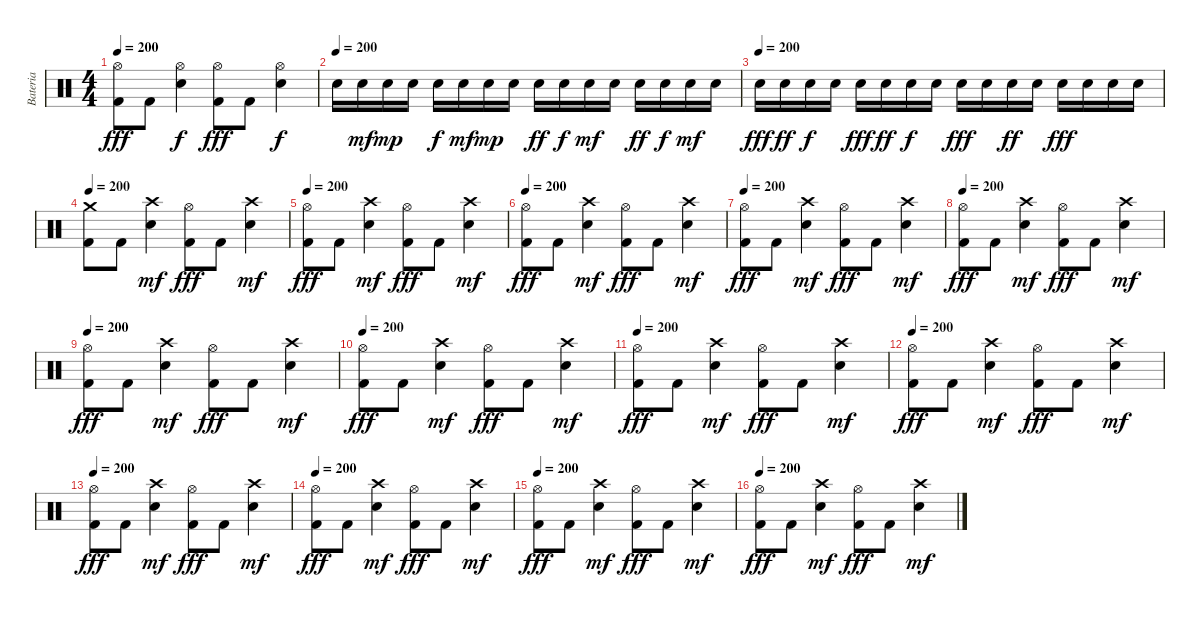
\track ("Bateria" "Bateria") {instrument percussion}
\staff {score}
\articulation defaults
\ts (4 4)
\tempo 200
\clef neutral
\ks c
("Hi-Hat (open)" "Kick (hit) 2").8{dy fff} "Kick (hit) 2".8 ("Hi-Hat (open)" "Electric Snare (hit)").4{dy f} ("Hi-Hat (open)" "Kick (hit) 2").8{dy fff} "Kick (hit) 2".8 ("Hi-Hat (open)" "Electric Snare (hit)").4{dy f} |
\tempo (200)
"Electric Snare (hit)".16 "Electric Snare (hit)".16{dy mf} "Electric Snare (hit)".16{dy mp} "Electric Snare (hit)".16 "Electric Snare (hit)".16{dy f} "Electric Snare (hit)".16{dy mf} "Electric Snare (hit)".16{dy mp} "Electric Snare (hit)".16 "Electric Snare (hit)".16{dy ff} "Electric Snare (hit)".16{dy f} "Electric Snare (hit)".16{dy mf} "Electric Snare (hit)".16 "Electric Snare (hit)".16{dy ff} "Electric Snare (hit)".16{dy f} "Electric Snare (hit)".16{dy mf} "Electric Snare (hit)".16 |
\tempo (200)
"Electric Snare (hit)".16{dy fff} "Electric Snare (hit)".16{dy ff} "Electric Snare (hit)".16{dy f} "Electric Snare (hit)".16 "Electric Snare (hit)".16{dy fff} "Electric Snare (hit)".16{dy ff} "Electric Snare (hit)".16{dy f} "Electric Snare (hit)".16 "Electric Snare (hit)".16{dy fff} "Electric Snare (hit)".16 "Electric Snare (hit)".16{dy ff} "Electric Snare (hit)".16 "Electric Snare (hit)".16{dy fff} "Electric Snare (hit)".16 "Electric Snare (hit)".16 "Electric Snare (hit)".16 |
\tempo 200
("Crash medium (hit)" "Kick (hit) 2").8 "Kick (hit) 2".8 ("Crash high (hit)" "Electric Snare (hit)").4{dy mf} ("Hi-Hat (open)" "Kick (hit) 2").8{dy fff} "Kick (hit) 2".8 ("Crash high (hit)" "Electric Snare (hit)").4{dy mf} |
\tempo 200
("Hi-Hat (open)" "Kick (hit) 2").8{dy fff} "Kick (hit) 2".8 ("Crash high (hit)" "Electric Snare (hit)").4{dy mf} ("Hi-Hat (open)" "Kick (hit) 2").8{dy fff} "Kick (hit) 2".8 ("Crash high (hit)" "Electric Snare (hit)").4{dy mf} |
\tempo 200
("Hi-Hat (open)" "Kick (hit) 2").8{dy fff} "Kick (hit) 2".8 ("Crash high (hit)" "Electric Snare (hit)").4{dy mf} ("Hi-Hat (open)" "Kick (hit) 2").8{dy fff} "Kick (hit) 2".8 ("Crash high (hit)" "Electric Snare (hit)").4{dy mf} |
\tempo 200
("Hi-Hat (open)" "Kick (hit) 2").8{dy fff} "Kick (hit) 2".8 ("Crash high (hit)" "Electric Snare (hit)").4{dy mf} ("Hi-Hat (open)" "Kick (hit) 2").8{dy fff} "Kick (hit) 2".8 ("Crash high (hit)" "Electric Snare (hit)").4{dy mf} |
\tempo 200
("Hi-Hat (open)" "Kick (hit) 2").8{dy fff} "Kick (hit) 2".8 ("Crash high (hit)" "Electric Snare (hit)").4{dy mf} ("Hi-Hat (open)" "Kick (hit) 2").8{dy fff} "Kick (hit) 2".8 ("Crash high (hit)" "Electric Snare (hit)").4{dy mf} |
\tempo 200
("Hi-Hat (open)" "Kick (hit) 2").8{dy fff} "Kick (hit) 2".8 ("Crash high (hit)" "Electric Snare (hit)").4{dy mf} ("Hi-Hat (open)" "Kick (hit) 2").8{dy fff} "Kick (hit) 2".8 ("Crash high (hit)" "Electric Snare (hit)").4{dy mf} |
\tempo 200
("Hi-Hat (open)" "Kick (hit) 2").8{dy fff} "Kick (hit) 2".8 ("Crash high (hit)" "Electric Snare (hit)").4{dy mf} ("Hi-Hat (open)" "Kick (hit) 2").8{dy fff} "Kick (hit) 2".8 ("Crash high (hit)" "Electric Snare (hit)").4{dy mf} |
\tempo 200
("Hi-Hat (open)" "Kick (hit) 2").8{dy fff} "Kick (hit) 2".8 ("Crash high (hit)" "Electric Snare (hit)").4{dy mf} ("Hi-Hat (open)" "Kick (hit) 2").8{dy fff} "Kick (hit) 2".8 ("Crash high (hit)" "Electric Snare (hit)").4{dy mf} |
\tempo 200
("Hi-Hat (open)" "Kick (hit) 2").8{dy fff} "Kick (hit) 2".8 ("Crash high (hit)" "Electric Snare (hit)").4{dy mf} ("Hi-Hat (open)" "Kick (hit) 2").8{dy fff} "Kick (hit) 2".8 ("Crash high (hit)" "Electric Snare (hit)").4{dy mf} |
\tempo 200
("Hi-Hat (open)" "Kick (hit) 2").8{dy fff} "Kick (hit) 2".8 ("Crash high (hit)" "Electric Snare (hit)").4{dy mf} ("Hi-Hat (open)" "Kick (hit) 2").8{dy fff} "Kick (hit) 2".8 ("Crash high (hit)" "Electric Snare (hit)").4{dy mf} |
\tempo 200
("Hi-Hat (open)" "Kick (hit) 2").8{dy fff} "Kick (hit) 2".8 ("Crash high (hit)" "Electric Snare (hit)").4{dy mf} ("Hi-Hat (open)" "Kick (hit) 2").8{dy fff} "Kick (hit) 2".8 ("Crash high (hit)" "Electric Snare (hit)").4{dy mf} |
\tempo 200
("Hi-Hat (open)" "Kick (hit) 2").8{dy fff} "Kick (hit) 2".8 ("Crash high (hit)" "Electric Snare (hit)").4{dy mf} ("Hi-Hat (open)" "Kick (hit) 2").8{dy fff} "Kick (hit) 2".8 ("Crash high (hit)" "Electric Snare (hit)").4{dy mf} |
\tempo 200
("Hi-Hat (open)" "Kick (hit) 2").8{dy fff} "Kick (hit) 2".8 ("Crash high (hit)" "Electric Snare (hit)").4{dy mf} ("Hi-Hat (open)" "Kick (hit) 2").8{dy fff} "Kick (hit) 2".8 ("Crash high (hit)" "Electric Snare (hit)").4{dy mf}
